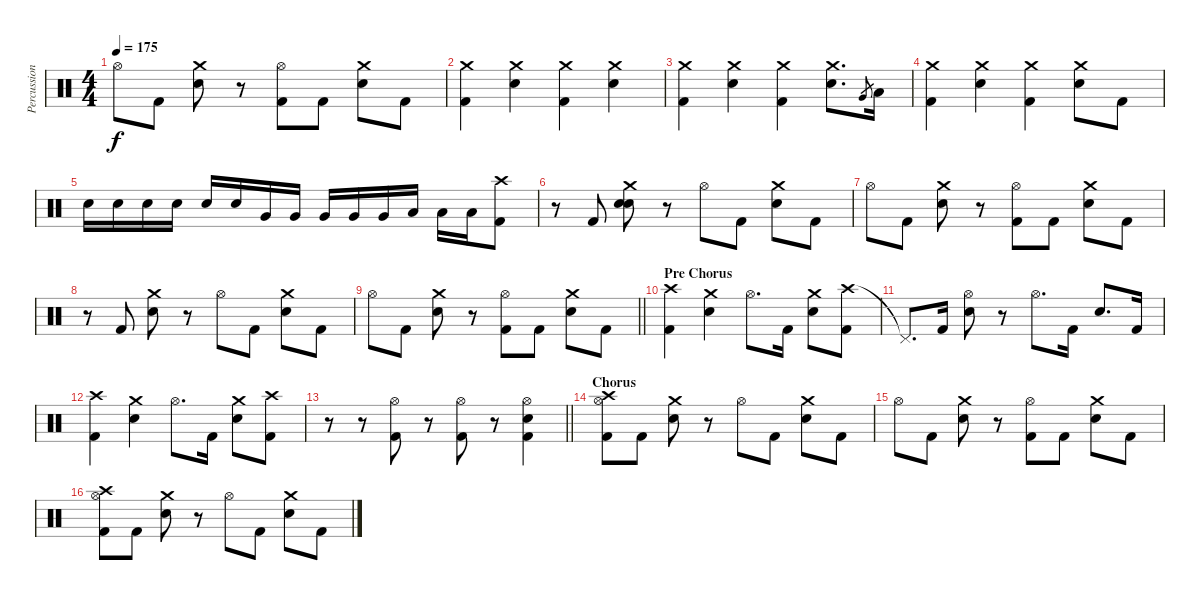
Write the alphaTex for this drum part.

\track ("Percussion" "Percussion") {instrument percussion}
\staff {score}
\articulation defaults
\ts (4 4)
\tempo 175
\clef neutral
\ks c "Hi-Hat (open)".8{dy f} "Kick (hit) 2".8
("Crash medium (hit)" "Electric Snare (hit)").8 r.8 ("Hi-Hat (open)" "Kick (hit) 2").8 "Kick (hit) 2".8 ("Crash medium (hit)" "Electric Snare (hit)").8 "Kick (hit) 2".8 |
("Crash medium (hit)" "Kick (hit) 2").4 ("Crash medium (hit)" "Electric Snare (hit)").4 ("Crash medium (hit)" "Kick (hit) 2").4 ("Crash medium (hit)" "Electric Snare (hit)").4 |
("Crash medium (hit)" "Kick (hit) 2").4 ("Crash medium (hit)" "Electric Snare (hit)").4 ("Crash medium (hit)" "Kick (hit) 2").4 ("Crash medium (hit)" "Electric Snare (hit)").8{d} "Very Low Tom (hit)"{h}.8{gr} "Low Floor Tom (hit)".16 |
("Crash medium (hit)" "Kick (hit) 2").4 ("Crash medium (hit)" "Electric Snare (hit)").4 ("Crash medium (hit)" "Kick (hit) 2").4 ("Crash medium (hit)" "Electric Snare (hit)").8 "Kick (hit) 2".8 |
"Electric Snare (hit)".16 "Electric Snare (hit)".16 "Electric Snare (hit)".16 "Electric Snare (hit)".16 "Electric Snare (hit)".16 "Electric Snare (hit)".16 "Very Low Tom (hit)".16 "Very Low Tom (hit)".16 "Very Low Tom (hit)".16 "Very Low Tom (hit)".16 "Very Low Tom (hit)".16 "Low Floor Tom (hit)".16 "Low Floor Tom (hit)".16 "Low Floor Tom (hit)".16 ("Crash high (hit)" "Kick (hit) 2").8 |
r.8 "Kick (hit) 2".8 ("Crash medium (hit)" "Snare (hit) 2" "Electric Snare (hit)").8 r.8 "Hi-Hat (open)".8 "Kick (hit) 2".8 ("Crash medium (hit)" "Electric Snare (hit)").8 "Kick (hit) 2".8 |
"Hi-Hat (open)".8 "Kick (hit) 2".8 ("Crash medium (hit)" "Electric Snare (hit)").8 r.8 ("Hi-Hat (open)" "Kick (hit) 2").8 "Kick (hit) 2".8 ("Crash medium (hit)" "Electric Snare (hit)").8 "Kick (hit) 2".8 |
r.8 "Kick (hit) 2".8 ("Crash medium (hit)" "Electric Snare (hit)").8 r.8 "Hi-Hat (open)".8 "Kick (hit) 2".8 ("Crash medium (hit)" "Electric Snare (hit)").8 "Kick (hit) 2".8 |
\barLineRight lightlight "Hi-Hat (open)".8 "Kick (hit) 2".8
("Crash medium (hit)" "Electric Snare (hit)").8 r.8 ("Hi-Hat (open)" "Kick (hit) 2").8 "Kick (hit) 2".8 ("Crash medium (hit)" "Electric Snare (hit)").8 "Kick (hit) 2".8 |
\section ("" "Pre Chorus")
("Crash high (hit)" "Kick (hit) 2").4 ("Crash medium (hit)" "Electric Snare (hit)").4 "Hi-Hat (open)".8{d} "Kick (hit) 2".16 ("Crash medium (hit)" "Electric Snare (hit)").8 ("Crash high (hit)" "Kick (hit) 2").8 |
"Pedal Hi-Hat (hit)"{t}.8{d} "Kick (hit) 2".16 ("Hi-Hat (open)" "Electric Snare (hit)").8 r.8 "Hi-Hat (open)".8{d} "Kick (hit) 2".16 "Electric Snare (hit)".8{d} "Kick (hit) 2".16 |
("Crash high (hit)" "Kick (hit) 2").4 ("Crash medium (hit)" "Electric Snare (hit)").4 "Hi-Hat (open)".8{d} "Kick (hit) 2".16 ("Crash medium (hit)" "Electric Snare (hit)").8 ("Crash high (hit)" "Kick (hit) 2").8 |
\barLineRight lightlight
r.8 r.8 ("Hi-Hat (open)" "Kick (hit) 2").8 r.8 ("Hi-Hat (open)" "Kick (hit) 2").8 r.8 ("Hi-Hat (open)" "Electric Snare (hit)" "Kick (hit) 2").4 |
\section ("" "Chorus")
("Hi-Hat (open)" "Crash high (hit)" "Kick (hit) 2").8 "Kick (hit) 2".8 ("Crash medium (hit)" "Electric Snare (hit)").8 r.8 "Hi-Hat (open)".8 "Kick (hit) 2".8 ("Crash medium (hit)" "Electric Snare (hit)").8 "Kick (hit) 2".8 |
"Hi-Hat (open)".8 "Kick (hit) 2".8 ("Crash medium (hit)" "Electric Snare (hit)").8 r.8 ("Hi-Hat (open)" "Kick (hit) 2").8 "Kick (hit) 2".8 ("Crash medium (hit)" "Electric Snare (hit)").8 "Kick (hit) 2".8 |
("Hi-Hat (open)" "Crash high (hit)" "Kick (hit) 2").8 "Kick (hit) 2".8 ("Crash medium (hit)" "Electric Snare (hit)").8 r.8 "Hi-Hat (open)".8 "Kick (hit) 2".8 ("Crash medium (hit)" "Electric Snare (hit)").8 "Kick (hit) 2".8
